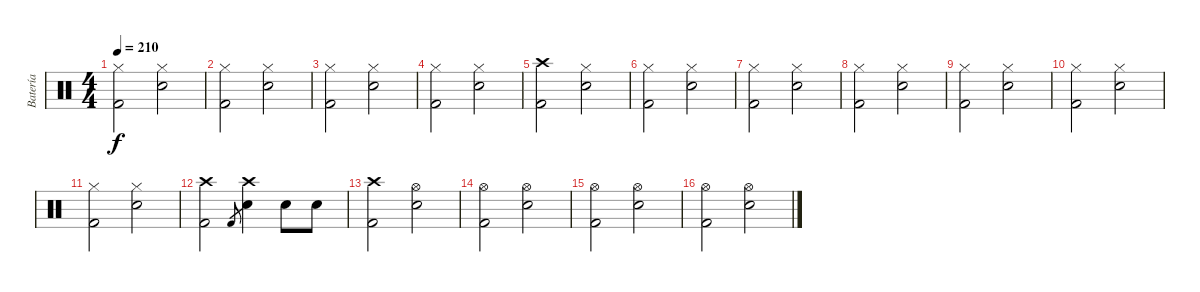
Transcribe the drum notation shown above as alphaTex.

\track ("Batería" "Batería") {instrument percussion}
\staff {score}
\articulation defaults
\ts (4 4)
\tempo 210
\clef neutral
\ks c
("Hi-Hat (closed)" "Kick (hit) 2").2{dy f} ("Hi-Hat (closed)" "Snare (hit) 2").2 |
("Hi-Hat (closed)" "Kick (hit) 2").2 ("Hi-Hat (closed)" "Snare (hit) 2").2 |
("Hi-Hat (closed)" "Kick (hit) 2").2 ("Hi-Hat (closed)" "Snare (hit) 2").2 |
("Hi-Hat (closed)" "Kick (hit) 2").2 ("Hi-Hat (closed)" "Snare (hit) 2").2 |
("Crash high (hit)" "Kick (hit) 2").2 ("Hi-Hat (closed)" "Snare (hit) 2").2 |
("Hi-Hat (closed)" "Kick (hit) 2").2 ("Hi-Hat (closed)" "Snare (hit) 2").2 |
("Hi-Hat (closed)" "Kick (hit) 2").2 ("Hi-Hat (closed)" "Snare (hit) 2").2 |
("Hi-Hat (closed)" "Kick (hit) 2").2 ("Hi-Hat (closed)" "Snare (hit) 2").2 |
("Hi-Hat (closed)" "Kick (hit) 2").2 ("Hi-Hat (closed)" "Snare (hit) 2").2 |
("Hi-Hat (closed)" "Kick (hit) 2").2 ("Hi-Hat (closed)" "Snare (hit) 2").2 |
("Hi-Hat (closed)" "Kick (hit) 2").2 ("Hi-Hat (closed)" "Snare (hit) 2").2 |
("Crash high (hit)" "Kick (hit) 2").2 "Kick (hit) 2".8{gr} ("Crash high (hit)" "Snare (hit) 2").4 "Snare (hit) 2".8 "Snare (hit) 2".8 |
("Crash high (hit)" "Kick (hit) 2").2 ("Hi-Hat (open)" "Snare (hit) 2").2 |
("Hi-Hat (open)" "Kick (hit) 2").2 ("Hi-Hat (open)" "Snare (hit) 2").2 |
("Hi-Hat (open)" "Kick (hit) 2").2 ("Hi-Hat (open)" "Snare (hit) 2").2 |
("Hi-Hat (open)" "Kick (hit) 2").2 ("Hi-Hat (open)" "Snare (hit) 2").2
